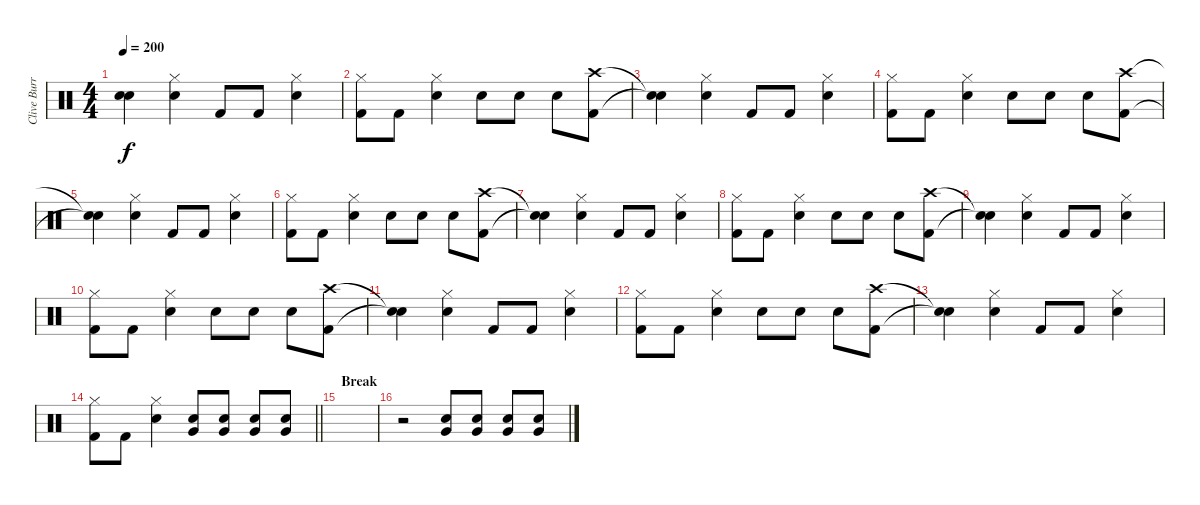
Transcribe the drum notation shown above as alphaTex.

\track ("Clive Burr" "Clive Burr") {instrument percussion}
\staff {score}
\articulation defaults
\ts (4 4)
\tempo 200
\clef neutral
\ks c
("Snare (hit)"{t} "Snare (hit)"{t}).4{dy f} ("Hi-Hat (closed)" "Snare (hit) 2").4 "Kick (hit) 2".8 "Kick (hit) 2".8 ("Hi-Hat (closed)" "Snare (hit) 2").4 |
("Hi-Hat (closed)" "Kick (hit) 2").8 "Kick (hit) 2".8 ("Hi-Hat (closed)" "Snare (hit) 2").4 "Snare (hit) 2".8 "Snare (hit) 2".8 "Snare (hit) 2".8 ("Crash high (hit)" "Kick (hit) 2").8 |
("Snare (hit)"{t} "Snare (hit)"{t}).4 ("Hi-Hat (closed)" "Snare (hit) 2").4 "Kick (hit) 2".8 "Kick (hit) 2".8 ("Hi-Hat (closed)" "Snare (hit) 2").4 |
("Hi-Hat (closed)" "Kick (hit) 2").8 "Kick (hit) 2".8 ("Hi-Hat (closed)" "Snare (hit) 2").4 "Snare (hit) 2".8 "Snare (hit) 2".8 "Snare (hit) 2".8 ("Crash high (hit)" "Kick (hit) 2").8 |
("Snare (hit)"{t} "Snare (hit)"{t}).4 ("Hi-Hat (closed)" "Snare (hit) 2").4 "Kick (hit) 2".8 "Kick (hit) 2".8 ("Hi-Hat (closed)" "Snare (hit) 2").4 |
("Hi-Hat (closed)" "Kick (hit) 2").8 "Kick (hit) 2".8 ("Hi-Hat (closed)" "Snare (hit) 2").4 "Snare (hit) 2".8 "Snare (hit) 2".8 "Snare (hit) 2".8 ("Crash high (hit)" "Kick (hit) 2").8 |
("Snare (hit)"{t} "Snare (hit)"{t}).4 ("Hi-Hat (closed)" "Snare (hit) 2").4 "Kick (hit) 2".8 "Kick (hit) 2".8 ("Hi-Hat (closed)" "Snare (hit) 2").4 |
("Hi-Hat (closed)" "Kick (hit) 2").8 "Kick (hit) 2".8 ("Hi-Hat (closed)" "Snare (hit) 2").4 "Snare (hit) 2".8 "Snare (hit) 2".8 "Snare (hit) 2".8 ("Crash high (hit)" "Kick (hit) 2").8 |
("Snare (hit)"{t} "Snare (hit)"{t}).4 ("Hi-Hat (closed)" "Snare (hit) 2").4 "Kick (hit) 2".8 "Kick (hit) 2".8 ("Hi-Hat (closed)" "Snare (hit) 2").4 |
("Hi-Hat (closed)" "Kick (hit) 2").8 "Kick (hit) 2".8 ("Hi-Hat (closed)" "Snare (hit) 2").4 "Snare (hit) 2".8 "Snare (hit) 2".8 "Snare (hit) 2".8 ("Crash high (hit)" "Kick (hit) 2").8 |
("Snare (hit)"{t} "Snare (hit)"{t}).4 ("Hi-Hat (closed)" "Snare (hit) 2").4 "Kick (hit) 2".8 "Kick (hit) 2".8 ("Hi-Hat (closed)" "Snare (hit) 2").4 |
("Hi-Hat (closed)" "Kick (hit) 2").8 "Kick (hit) 2".8 ("Hi-Hat (closed)" "Snare (hit) 2").4 "Snare (hit) 2".8 "Snare (hit) 2".8 "Snare (hit) 2".8 ("Crash high (hit)" "Kick (hit) 2").8 |
("Snare (hit)"{t} "Snare (hit)"{t}).4 ("Hi-Hat (closed)" "Snare (hit) 2").4 "Kick (hit) 2".8 "Kick (hit) 2".8 ("Hi-Hat (closed)" "Snare (hit) 2").4 |
\barLineRight lightlight
("Hi-Hat (closed)" "Kick (hit) 2").8 "Kick (hit) 2".8 ("Hi-Hat (closed)" "Snare (hit) 2").4 ("Very Low Tom (hit)" "Snare (hit) 2").8 ("Very Low Tom (hit)" "Snare (hit) 2").8 ("Very Low Tom (hit)" "Snare (hit) 2").8 ("Very Low Tom (hit)" "Snare (hit) 2").8 |
\section ("" "Break")
|
r.2 ("Very Low Tom (hit)" "Snare (hit) 2").8 ("Very Low Tom (hit)" "Snare (hit) 2").8 ("Very Low Tom (hit)" "Snare (hit) 2").8 ("Very Low Tom (hit)" "Snare (hit) 2").8
